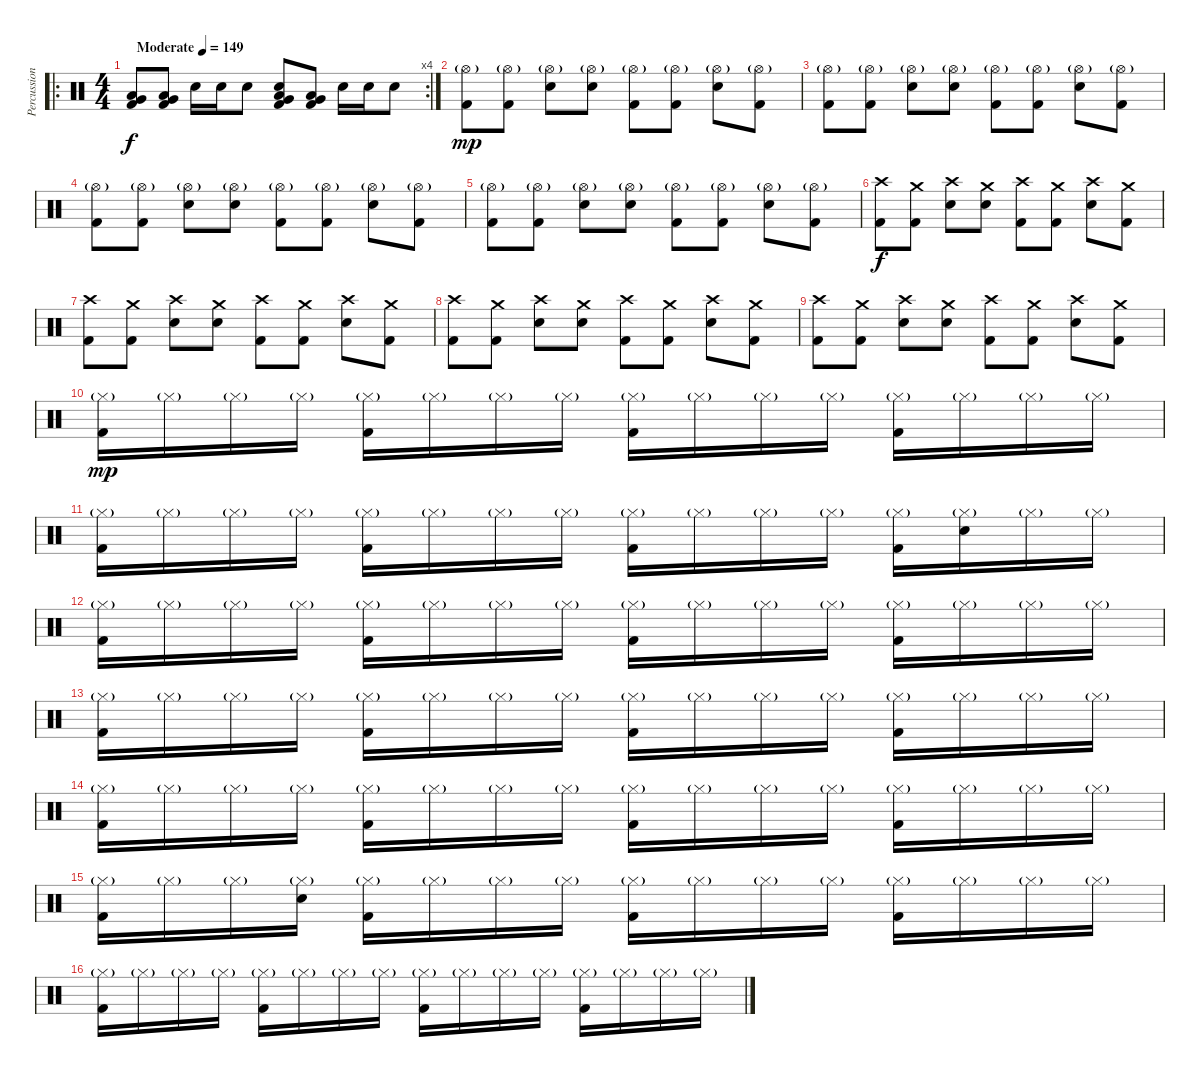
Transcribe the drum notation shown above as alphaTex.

\track ("Percussion" "Percussion") {instrument percussion}
\staff {score}
\articulation defaults
\ro
\rc 4
\ts (4 4)
\tempo (149 "Moderate")
\clef neutral
\ks c
("Kick (hit) 2" "Low Floor Tom (hit)" "Very Low Tom (hit)").8{dy f} ("Kick (hit) 2" "Low Floor Tom (hit)" "Very Low Tom (hit)").8 "Electric Snare (hit)".16 "Electric Snare (hit)".16 "Electric Snare (hit)".8 ("Kick (hit) 2" "Low Floor Tom (hit)" "Very Low Tom (hit)" "Snare (hit)").8 ("Kick (hit) 2" "Low Floor Tom (hit)" "Very Low Tom (hit)").8 "Electric Snare (hit)".16 "Electric Snare (hit)".16 "Electric Snare (hit)".8 |
("Kick (hit) 2" "Hi-Hat (open)"{g}).8{dy mp} ("Kick (hit) 2" "Hi-Hat (open)"{g}).8 ("Electric Snare (hit)" "Hi-Hat (open)"{g}).8 ("Electric Snare (hit)" "Hi-Hat (open)"{g}).8 ("Kick (hit) 2" "Hi-Hat (open)"{g}).8 ("Kick (hit) 2" "Hi-Hat (open)"{g}).8 ("Electric Snare (hit)" "Hi-Hat (open)"{g}).8 ("Kick (hit) 2" "Hi-Hat (open)"{g}).8 |
("Kick (hit) 2" "Hi-Hat (open)"{g}).8 ("Kick (hit) 2" "Hi-Hat (open)"{g}).8 ("Electric Snare (hit)" "Hi-Hat (open)"{g}).8 ("Electric Snare (hit)" "Hi-Hat (open)"{g}).8 ("Kick (hit) 2" "Hi-Hat (open)"{g}).8 ("Kick (hit) 2" "Hi-Hat (open)"{g}).8 ("Electric Snare (hit)" "Hi-Hat (open)"{g}).8 ("Kick (hit) 2" "Hi-Hat (open)"{g}).8 |
("Kick (hit) 2" "Hi-Hat (open)"{g}).8 ("Kick (hit) 2" "Hi-Hat (open)"{g}).8 ("Electric Snare (hit)" "Hi-Hat (open)"{g}).8 ("Electric Snare (hit)" "Hi-Hat (open)"{g}).8 ("Kick (hit) 2" "Hi-Hat (open)"{g}).8 ("Kick (hit) 2" "Hi-Hat (open)"{g}).8 ("Electric Snare (hit)" "Hi-Hat (open)"{g}).8 ("Kick (hit) 2" "Hi-Hat (open)"{g}).8 |
("Kick (hit) 2" "Hi-Hat (open)"{g}).8 ("Kick (hit) 2" "Hi-Hat (open)"{g}).8 ("Electric Snare (hit)" "Hi-Hat (open)"{g}).8 ("Electric Snare (hit)" "Hi-Hat (open)"{g}).8 ("Kick (hit) 2" "Hi-Hat (open)"{g}).8 ("Kick (hit) 2" "Hi-Hat (open)"{g}).8 ("Electric Snare (hit)" "Hi-Hat (open)"{g}).8 ("Kick (hit) 2" "Hi-Hat (open)"{g}).8 |
("Kick (hit) 2" "Crash high (hit)").8{dy f} ("Kick (hit) 2" "Crash medium (hit)").8 ("Electric Snare (hit)" "Crash high (hit)").8 ("Electric Snare (hit)" "Crash medium (hit)").8 ("Kick (hit) 2" "Crash high (hit)").8 ("Kick (hit) 2" "Crash medium (hit)").8 ("Electric Snare (hit)" "Crash high (hit)").8 ("Kick (hit) 2" "Crash medium (hit)").8 |
("Kick (hit) 2" "Crash high (hit)").8 ("Kick (hit) 2" "Crash medium (hit)").8 ("Electric Snare (hit)" "Crash high (hit)").8 ("Electric Snare (hit)" "Crash medium (hit)").8 ("Kick (hit) 2" "Crash high (hit)").8 ("Kick (hit) 2" "Crash medium (hit)").8 ("Electric Snare (hit)" "Crash high (hit)").8 ("Kick (hit) 2" "Crash medium (hit)").8 |
("Kick (hit) 2" "Crash high (hit)").8 ("Kick (hit) 2" "Crash medium (hit)").8 ("Electric Snare (hit)" "Crash high (hit)").8 ("Electric Snare (hit)" "Crash medium (hit)").8 ("Kick (hit) 2" "Crash high (hit)").8 ("Kick (hit) 2" "Crash medium (hit)").8 ("Electric Snare (hit)" "Crash high (hit)").8 ("Kick (hit) 2" "Crash medium (hit)").8 |
("Kick (hit) 2" "Crash high (hit)").8 ("Kick (hit) 2" "Crash medium (hit)").8 ("Electric Snare (hit)" "Crash high (hit)").8 ("Electric Snare (hit)" "Crash medium (hit)").8 ("Kick (hit) 2" "Crash high (hit)").8 ("Kick (hit) 2" "Crash medium (hit)").8 ("Electric Snare (hit)" "Crash high (hit)").8 ("Kick (hit) 2" "Crash medium (hit)").8 |
("Hi-Hat (closed)"{g} "Kick (hit) 2").16{dy mp} "Hi-Hat (closed)"{g}.16 "Hi-Hat (closed)"{g}.16 "Hi-Hat (closed)"{g}.16 ("Hi-Hat (closed)"{g} "Kick (hit) 2").16 "Hi-Hat (closed)"{g}.16 "Hi-Hat (closed)"{g}.16 "Hi-Hat (closed)"{g}.16 ("Hi-Hat (closed)"{g} "Kick (hit) 2").16 "Hi-Hat (closed)"{g}.16 "Hi-Hat (closed)"{g}.16 "Hi-Hat (closed)"{g}.16 ("Hi-Hat (closed)"{g} "Kick (hit) 2").16 "Hi-Hat (closed)"{g}.16 "Hi-Hat (closed)"{g}.16 "Hi-Hat (closed)"{g}.16 |
("Hi-Hat (closed)"{g} "Kick (hit) 2").16 "Hi-Hat (closed)"{g}.16 "Hi-Hat (closed)"{g}.16 "Hi-Hat (closed)"{g}.16 ("Hi-Hat (closed)"{g} "Kick (hit) 2").16 "Hi-Hat (closed)"{g}.16 "Hi-Hat (closed)"{g}.16 "Hi-Hat (closed)"{g}.16 ("Hi-Hat (closed)"{g} "Kick (hit) 2").16 "Hi-Hat (closed)"{g}.16 "Hi-Hat (closed)"{g}.16 "Hi-Hat (closed)"{g}.16 ("Hi-Hat (closed)"{g} "Kick (hit) 2").16 ("Hi-Hat (closed)"{g} "Snare (hit)").16 "Hi-Hat (closed)"{g}.16 "Hi-Hat (closed)"{g}.16 |
("Hi-Hat (closed)"{g} "Kick (hit) 2").16 "Hi-Hat (closed)"{g}.16 "Hi-Hat (closed)"{g}.16 "Hi-Hat (closed)"{g}.16 ("Hi-Hat (closed)"{g} "Kick (hit) 2").16 "Hi-Hat (closed)"{g}.16 "Hi-Hat (closed)"{g}.16 "Hi-Hat (closed)"{g}.16 ("Hi-Hat (closed)"{g} "Kick (hit) 2").16 "Hi-Hat (closed)"{g}.16 "Hi-Hat (closed)"{g}.16 "Hi-Hat (closed)"{g}.16 ("Hi-Hat (closed)"{g} "Kick (hit) 2").16 "Hi-Hat (closed)"{g}.16 "Hi-Hat (closed)"{g}.16 "Hi-Hat (closed)"{g}.16 |
("Hi-Hat (closed)"{g} "Kick (hit) 2").16 "Hi-Hat (closed)"{g}.16 "Hi-Hat (closed)"{g}.16 "Hi-Hat (closed)"{g}.16 ("Hi-Hat (closed)"{g} "Kick (hit) 2").16 "Hi-Hat (closed)"{g}.16 "Hi-Hat (closed)"{g}.16 "Hi-Hat (closed)"{g}.16 ("Hi-Hat (closed)"{g} "Kick (hit) 2").16 "Hi-Hat (closed)"{g}.16 "Hi-Hat (closed)"{g}.16 "Hi-Hat (closed)"{g}.16 ("Hi-Hat (closed)"{g} "Kick (hit) 2").16 "Hi-Hat (closed)"{g}.16 "Hi-Hat (closed)"{g}.16 "Hi-Hat (closed)"{g}.16 |
("Hi-Hat (closed)"{g} "Kick (hit) 2").16 "Hi-Hat (closed)"{g}.16 "Hi-Hat (closed)"{g}.16 "Hi-Hat (closed)"{g}.16 ("Hi-Hat (closed)"{g} "Kick (hit) 2").16 "Hi-Hat (closed)"{g}.16 "Hi-Hat (closed)"{g}.16 "Hi-Hat (closed)"{g}.16 ("Hi-Hat (closed)"{g} "Kick (hit) 2").16 "Hi-Hat (closed)"{g}.16 "Hi-Hat (closed)"{g}.16 "Hi-Hat (closed)"{g}.16 ("Hi-Hat (closed)"{g} "Kick (hit) 2").16 "Hi-Hat (closed)"{g}.16 "Hi-Hat (closed)"{g}.16 "Hi-Hat (closed)"{g}.16 |
("Hi-Hat (closed)"{g} "Kick (hit) 2").16 "Hi-Hat (closed)"{g}.16 "Hi-Hat (closed)"{g}.16 ("Hi-Hat (closed)"{g} "Snare (hit)").16 ("Hi-Hat (closed)"{g} "Kick (hit) 2").16 "Hi-Hat (closed)"{g}.16 "Hi-Hat (closed)"{g}.16 "Hi-Hat (closed)"{g}.16 ("Hi-Hat (closed)"{g} "Kick (hit) 2").16 "Hi-Hat (closed)"{g}.16 "Hi-Hat (closed)"{g}.16 "Hi-Hat (closed)"{g}.16 ("Hi-Hat (closed)"{g} "Kick (hit) 2").16 "Hi-Hat (closed)"{g}.16 "Hi-Hat (closed)"{g}.16 "Hi-Hat (closed)"{g}.16 |
("Hi-Hat (closed)"{g} "Kick (hit) 2").16 "Hi-Hat (closed)"{g}.16 "Hi-Hat (closed)"{g}.16 "Hi-Hat (closed)"{g}.16 ("Hi-Hat (closed)"{g} "Kick (hit) 2").16 "Hi-Hat (closed)"{g}.16 "Hi-Hat (closed)"{g}.16 "Hi-Hat (closed)"{g}.16 ("Hi-Hat (closed)"{g} "Kick (hit) 2").16 "Hi-Hat (closed)"{g}.16 "Hi-Hat (closed)"{g}.16 "Hi-Hat (closed)"{g}.16 ("Hi-Hat (closed)"{g} "Kick (hit) 2").16 "Hi-Hat (closed)"{g}.16 "Hi-Hat (closed)"{g}.16 "Hi-Hat (closed)"{g}.16
